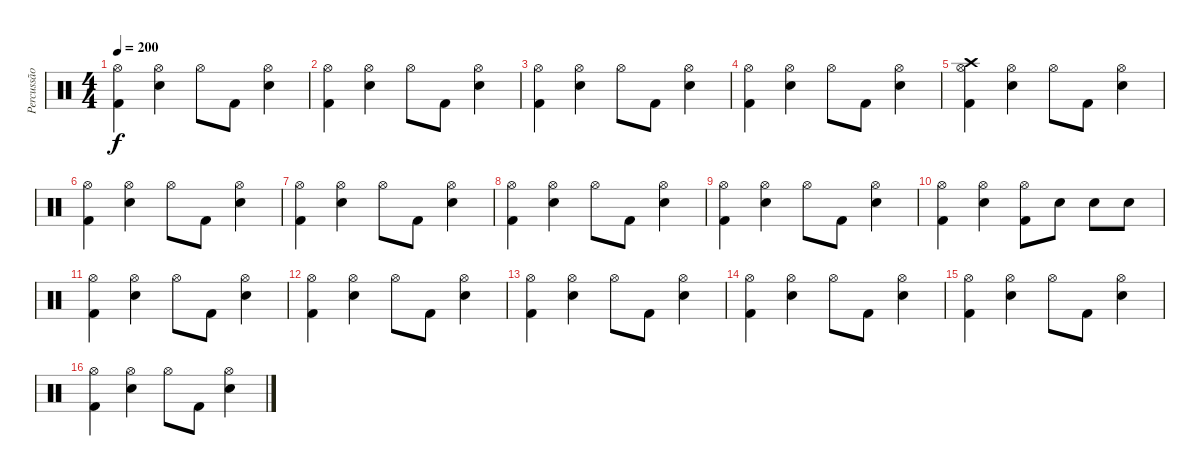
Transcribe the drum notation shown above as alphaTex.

\track ("Percussão" "Percussão") {instrument percussion}
\staff {score}
\articulation defaults
\ts (4 4)
\tempo 200
\clef neutral
\ks c
("Hi-Hat (open)" "Kick (hit) 2").4{dy f} ("Hi-Hat (open)" "Electric Snare (hit)").4 "Hi-Hat (open)".8 "Kick (hit) 2".8 ("Hi-Hat (open)" "Electric Snare (hit)").4 |
("Hi-Hat (open)" "Kick (hit) 2").4 ("Hi-Hat (open)" "Electric Snare (hit)").4 "Hi-Hat (open)".8 "Kick (hit) 2".8 ("Hi-Hat (open)" "Electric Snare (hit)").4 |
("Hi-Hat (open)" "Kick (hit) 2").4 ("Hi-Hat (open)" "Electric Snare (hit)").4 "Hi-Hat (open)".8 "Kick (hit) 2".8 ("Hi-Hat (open)" "Electric Snare (hit)").4 |
("Hi-Hat (open)" "Kick (hit) 2").4 ("Hi-Hat (open)" "Electric Snare (hit)").4 "Hi-Hat (open)".8 "Kick (hit) 2".8 ("Hi-Hat (open)" "Electric Snare (hit)").4 |
("Hi-Hat (open)" "Crash high (hit)" "Kick (hit) 2").4 ("Hi-Hat (open)" "Electric Snare (hit)").4 "Hi-Hat (open)".8 "Kick (hit) 2".8 ("Hi-Hat (open)" "Electric Snare (hit)").4 |
("Hi-Hat (open)" "Kick (hit) 2").4 ("Hi-Hat (open)" "Electric Snare (hit)").4 "Hi-Hat (open)".8 "Kick (hit) 2".8 ("Hi-Hat (open)" "Electric Snare (hit)").4 |
("Hi-Hat (open)" "Kick (hit) 2").4 ("Hi-Hat (open)" "Electric Snare (hit)").4 "Hi-Hat (open)".8 "Kick (hit) 2".8 ("Hi-Hat (open)" "Electric Snare (hit)").4 |
("Hi-Hat (open)" "Kick (hit) 2").4 ("Hi-Hat (open)" "Electric Snare (hit)").4 "Hi-Hat (open)".8 "Kick (hit) 2".8 ("Hi-Hat (open)" "Electric Snare (hit)").4 |
("Hi-Hat (open)" "Kick (hit) 2").4 ("Hi-Hat (open)" "Electric Snare (hit)").4 "Hi-Hat (open)".8 "Kick (hit) 2".8 ("Hi-Hat (open)" "Electric Snare (hit)").4 |
("Hi-Hat (open)" "Kick (hit) 2").4 ("Hi-Hat (open)" "Electric Snare (hit)").4 ("Hi-Hat (open)" "Kick (hit) 2").8 "Electric Snare (hit)".8 "Electric Snare (hit)".8 "Electric Snare (hit)".8 |
("Hi-Hat (open)" "Kick (hit) 2").4 ("Hi-Hat (open)" "Electric Snare (hit)").4 "Hi-Hat (open)".8 "Kick (hit) 2".8 ("Hi-Hat (open)" "Electric Snare (hit)").4 |
("Hi-Hat (open)" "Kick (hit) 2").4 ("Hi-Hat (open)" "Electric Snare (hit)").4 "Hi-Hat (open)".8 "Kick (hit) 2".8 ("Hi-Hat (open)" "Electric Snare (hit)").4 |
("Hi-Hat (open)" "Kick (hit) 2").4 ("Hi-Hat (open)" "Electric Snare (hit)").4 "Hi-Hat (open)".8 "Kick (hit) 2".8 ("Hi-Hat (open)" "Electric Snare (hit)").4 |
("Hi-Hat (open)" "Kick (hit) 2").4 ("Hi-Hat (open)" "Electric Snare (hit)").4 "Hi-Hat (open)".8 "Kick (hit) 2".8 ("Hi-Hat (open)" "Electric Snare (hit)").4 |
("Hi-Hat (open)" "Kick (hit) 2").4 ("Hi-Hat (open)" "Electric Snare (hit)").4 "Hi-Hat (open)".8 "Kick (hit) 2".8 ("Hi-Hat (open)" "Electric Snare (hit)").4 |
("Hi-Hat (open)" "Kick (hit) 2").4 ("Hi-Hat (open)" "Electric Snare (hit)").4 "Hi-Hat (open)".8 "Kick (hit) 2".8 ("Hi-Hat (open)" "Electric Snare (hit)").4
